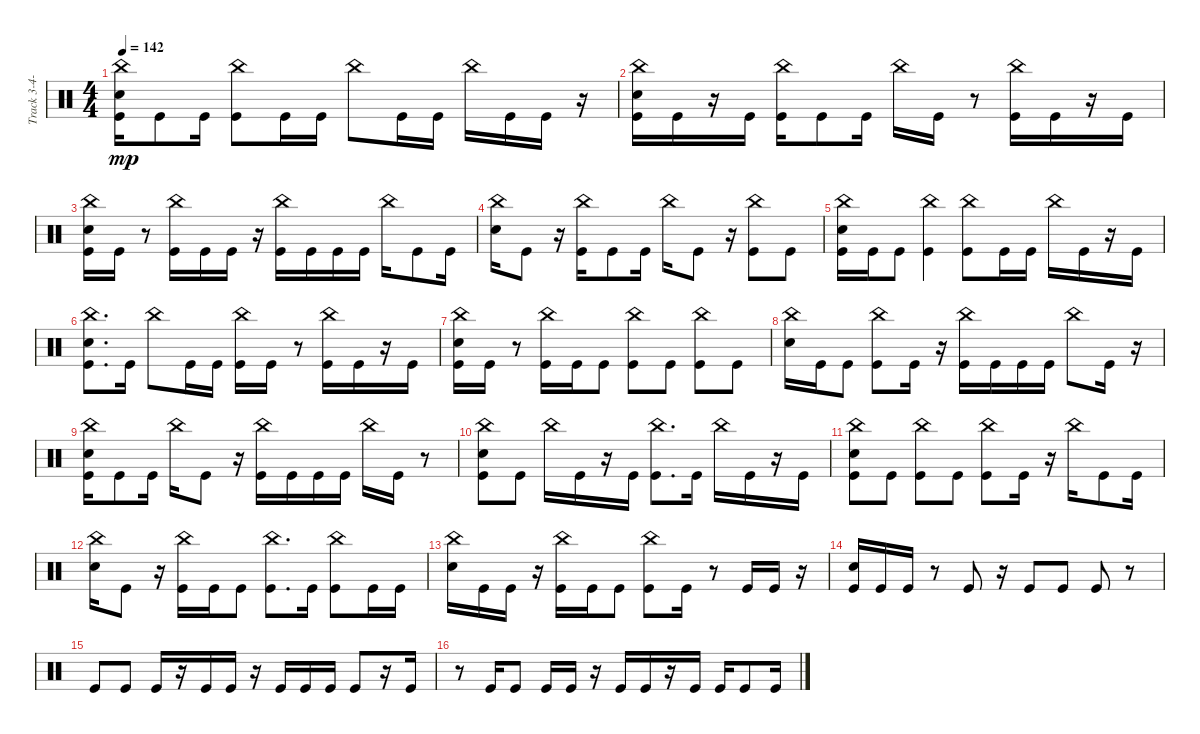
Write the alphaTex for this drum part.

\track ("Track 3-4-5-6-7" "Track 3-4-") {instrument percussion}
\staff {score}
\articulation defaults
\ts (4 4)
\tempo 142
\clef neutral
\ks c
("Kick (hit)" "Electric Snare (hit)" "China (hit)").16{dy mp} "Kick (hit)".8 "Kick (hit)".16 ("Kick (hit)" "China (hit)").8 "Kick (hit)".16 "Kick (hit)".16 "China (hit)".8 "Kick (hit)".16 "Kick (hit)".16 "China (hit)".16 "Kick (hit)".16 "Kick (hit)".16 r.16 |
("Kick (hit)" "Electric Snare (hit)" "China (hit)").16 "Kick (hit)".16 r.16 "Kick (hit)".16 ("Kick (hit)" "China (hit)").16 "Kick (hit)".8 "Kick (hit)".16 "China (hit)".16 "Kick (hit)".16 r.8 ("Kick (hit)" "China (hit)").16 "Kick (hit)".16 r.16 "Kick (hit)".16 |
("Kick (hit)" "Electric Snare (hit)" "China (hit)").16 "Kick (hit)".16 r.8 ("Kick (hit)" "China (hit)").16 "Kick (hit)".16 "Kick (hit)".16 r.16 ("Kick (hit)" "China (hit)").16 "Kick (hit)".16 "Kick (hit)".16 "Kick (hit)".16 "China (hit)".16 "Kick (hit)".8 "Kick (hit)".16 |
("Electric Snare (hit)" "China (hit)").16 "Kick (hit)".8 r.16 ("Kick (hit)" "China (hit)").16 "Kick (hit)".8 "Kick (hit)".16 "China (hit)".16 "Kick (hit)".8 r.16 ("Kick (hit)" "China (hit)").8 "Kick (hit)".8 |
("Kick (hit)" "Electric Snare (hit)" "China (hit)").16 "Kick (hit)".16 "Kick (hit)".8 ("Kick (hit)" "China (hit)").4 ("Kick (hit)" "China (hit)").8 "Kick (hit)".16 "Kick (hit)".16 "China (hit)".16 "Kick (hit)".16 r.16 "Kick (hit)".16 |
("Kick (hit)" "Electric Snare (hit)" "China (hit)").8{d} "Kick (hit)".16 "China (hit)".8 "Kick (hit)".16 "Kick (hit)".16 ("Kick (hit)" "China (hit)").16 "Kick (hit)".16 r.8 ("Kick (hit)" "China (hit)").16 "Kick (hit)".16 r.16 "Kick (hit)".16 |
("Kick (hit)" "Electric Snare (hit)" "China (hit)").16 "Kick (hit)".16 r.8 ("Kick (hit)" "China (hit)").16 "Kick (hit)".16 "Kick (hit)".8 ("Kick (hit)" "China (hit)").8 "Kick (hit)".8 ("Kick (hit)" "China (hit)").8 "Kick (hit)".8 |
("Electric Snare (hit)" "China (hit)").16 "Kick (hit)".16 "Kick (hit)".8 ("Kick (hit)" "China (hit)").8 "Kick (hit)".16 r.16 ("Kick (hit)" "China (hit)").16 "Kick (hit)".16 "Kick (hit)".16 "Kick (hit)".16 "China (hit)".8 "Kick (hit)".16 r.16 |
("Kick (hit)" "Electric Snare (hit)" "China (hit)").16 "Kick (hit)".8 "Kick (hit)".16 "China (hit)".16 "Kick (hit)".8 r.16 ("Kick (hit)" "China (hit)").16 "Kick (hit)".16 "Kick (hit)".16 "Kick (hit)".16 "China (hit)".16 "Kick (hit)".16 r.8 |
("Kick (hit)" "Electric Snare (hit)" "China (hit)").8 "Kick (hit)".8 "China (hit)".16 "Kick (hit)".16 r.16 "Kick (hit)".16 ("Kick (hit)" "China (hit)").8{d} "Kick (hit)".16 "China (hit)".16 "Kick (hit)".16 r.16 "Kick (hit)".16 |
("Kick (hit)" "Electric Snare (hit)" "China (hit)").8 "Kick (hit)".8 ("Kick (hit)" "China (hit)").8 "Kick (hit)".8 ("Kick (hit)" "China (hit)").8 "Kick (hit)".16 r.16 "China (hit)".16 "Kick (hit)".8 "Kick (hit)".16 |
("Electric Snare (hit)" "China (hit)").16 "Kick (hit)".8 r.16 ("Kick (hit)" "China (hit)").16 "Kick (hit)".16 "Kick (hit)".8 ("Kick (hit)" "China (hit)").8{d} "Kick (hit)".16 ("Kick (hit)" "China (hit)").8 "Kick (hit)".16 "Kick (hit)".16 |
("Electric Snare (hit)" "China (hit)").16 "Kick (hit)".16 "Kick (hit)".16 r.16 ("Kick (hit)" "China (hit)").16 "Kick (hit)".16 "Kick (hit)".8 ("Kick (hit)" "China (hit)").8 "Kick (hit)".16 r.8 "Kick (hit)".16 "Kick (hit)".16 r.16 |
("Kick (hit)" "Electric Snare (hit)").16 "Kick (hit)".16 "Kick (hit)".16 r.8 "Kick (hit)".8 r.16 "Kick (hit)".8 "Kick (hit)".8 "Kick (hit)".8 r.8 |
"Kick (hit)".8 "Kick (hit)".8 "Kick (hit)".16 r.16 "Kick (hit)".16 "Kick (hit)".16 r.16 "Kick (hit)".16 "Kick (hit)".16 "Kick (hit)".16 "Kick (hit)".8 r.16 "Kick (hit)".16 |
r.8 "Kick (hit)".16 "Kick (hit)".8 "Kick (hit)".16 "Kick (hit)".16 r.16 "Kick (hit)".16 "Kick (hit)".16 r.16 "Kick (hit)".16 "Kick (hit)".16 "Kick (hit)".8 "Kick (hit)".16
